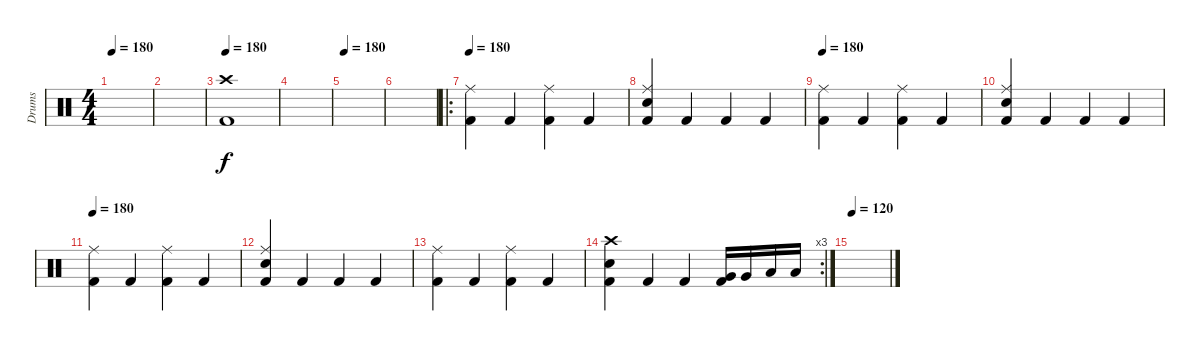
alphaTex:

\track ("Drums" "Drums") {instrument percussion}
\staff {score}
\articulation defaults
\ts (4 4)
\tempo 180
\clef neutral
\ks c
|
|
\tempo 180
("Crash high (hit)" "Kick (hit) 2").1 |
|
\tempo 180
|
|
\ro
\tempo 180
("Ride (middle)" "Kick (hit) 2").4 "Kick (hit) 2".4 ("Ride (middle)" "Kick (hit) 2").4 "Kick (hit) 2".4 |
("Ride (middle)" "Electric Snare (hit)" "Kick (hit) 2").4 "Kick (hit) 2".4 "Kick (hit) 2".4 "Kick (hit) 2".4 |
\tempo 180
("Ride (middle)" "Kick (hit) 2").4 "Kick (hit) 2".4 ("Ride (middle)" "Kick (hit) 2").4 "Kick (hit) 2".4 |
("Ride (middle)" "Electric Snare (hit)" "Kick (hit) 2").4 "Kick (hit) 2".4 "Kick (hit) 2".4 "Kick (hit) 2".4 |
\tempo 180
("Ride (middle)" "Kick (hit) 2").4 "Kick (hit) 2".4 ("Ride (middle)" "Kick (hit) 2").4 "Kick (hit) 2".4 |
("Ride (middle)" "Electric Snare (hit)" "Kick (hit) 2").4 "Kick (hit) 2".4 "Kick (hit) 2".4 "Kick (hit) 2".4 |
("Ride (middle)" "Kick (hit) 2").4 "Kick (hit) 2".4 ("Ride (middle)" "Kick (hit) 2").4 "Kick (hit) 2".4 |
\rc 3
("Crash high (hit)" "Electric Snare (hit)" "Kick (hit) 2").4 "Kick (hit) 2".4 "Kick (hit) 2".4 ("Very Low Tom (hit)" "Kick (hit) 2").16 "Very Low Tom (hit)".16 "Low Floor Tom (hit)".16 "Low Floor Tom (hit)".16 |
\tempo 120
